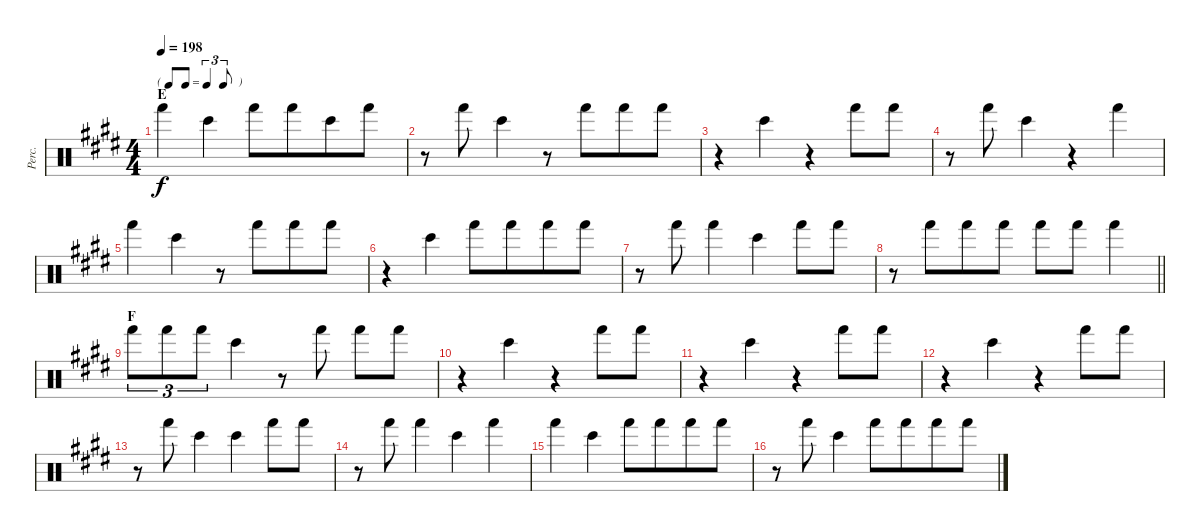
\track ("Perc." "Perc.") {instrument percussion}
\staff {score}
\articulation defaults
\ts (4 4)
\tf triplet8th
\section ("" "E")
\tempo 198
\clef neutral
\ks e "Hand (hit)".4{dy f} "Bongo High (hit)".4 "Hand (hit)".8 "Hand (hit)".8{beam merge} "Bongo High (hit)".8 "Hand (hit)".8
|
r.8 "Hand (hit)".8 "Bongo High (hit)".4 r.8 "Hand (hit)".8{beam merge} "Hand (hit)".8 "Hand (hit)".8 |
r.4 "Bongo High (hit)".4 r.4 "Hand (hit)".8 "Hand (hit)".8 |
r.8 "Hand (hit)".8 "Bongo High (hit)".4 r.4 "Hand (hit)".4 |
"Hand (hit)".4 "Bongo High (hit)".4 r.8 "Hand (hit)".8{beam merge} "Hand (hit)".8 "Hand (hit)".8 |
r.4 "Bongo High (hit)".4 "Hand (hit)".8 "Hand (hit)".8{beam merge} "Hand (hit)".8 "Hand (hit)".8 |
r.8 "Hand (hit)".8 "Hand (hit)".4 "Bongo High (hit)".4 "Hand (hit)".8 "Hand (hit)".8 |
\barLineRight lightlight
r.8 "Hand (hit)".8{beam merge} "Hand (hit)".8 "Hand (hit)".8 "Hand (hit)".8 "Hand (hit)".8 "Hand (hit)".4 |
\section ("" "F")
"Hand (hit)".8{tu (3 2)} "Hand (hit)".8{tu (3 2)} "Hand (hit)".8{tu (3 2)} "Bongo High (hit)".4 r.8 "Hand (hit)".8 "Hand (hit)".8 "Hand (hit)".8 |
r.4 "Bongo High (hit)".4 r.4 "Hand (hit)".8 "Hand (hit)".8 |
r.4 "Bongo High (hit)".4 r.4 "Hand (hit)".8 "Hand (hit)".8 |
r.4 "Bongo High (hit)".4 r.4 "Hand (hit)".8 "Hand (hit)".8 |
r.8 "Hand (hit)".8 "Bongo High (hit)".4 "Bongo High (hit)".4 "Hand (hit)".8 "Hand (hit)".8 |
r.8 "Hand (hit)".8 "Hand (hit)".4 "Bongo High (hit)".4 "Hand (hit)".4 |
"Hand (hit)".4 "Bongo High (hit)".4 "Hand (hit)".8 "Hand (hit)".8{beam merge} "Hand (hit)".8 "Hand (hit)".8 |
r.8 "Hand (hit)".8 "Bongo High (hit)".4 "Hand (hit)".8 "Hand (hit)".8{beam merge} "Hand (hit)".8 "Hand (hit)".8
